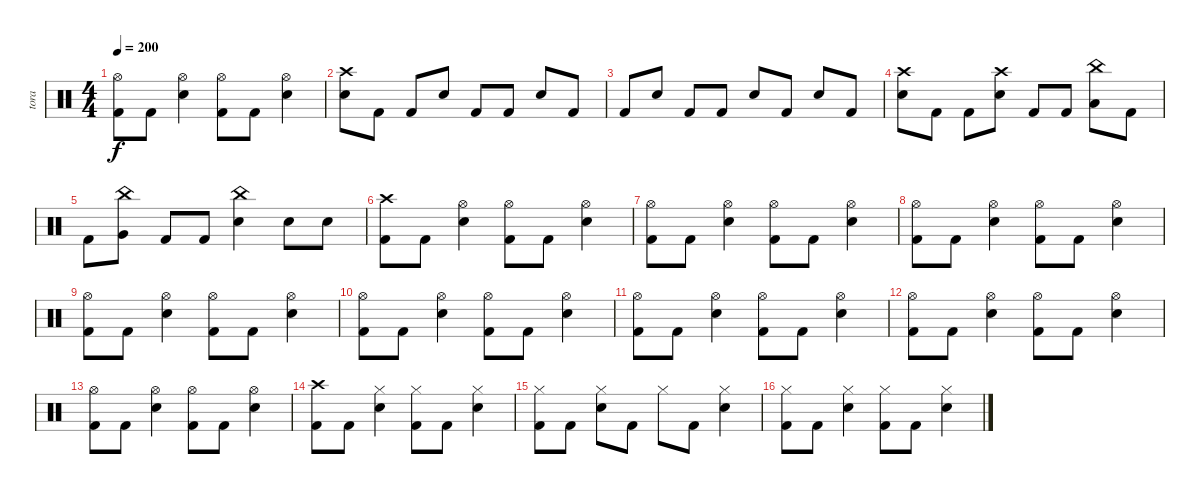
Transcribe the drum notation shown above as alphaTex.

\track ("tora" "tora") {instrument percussion}
\staff {score}
\articulation defaults
\ts (4 4)
\tempo 200
\clef neutral
\ks c
("Hi-Hat (open)" "Kick (hit) 2").8{dy f} "Kick (hit) 2".8 ("Hi-Hat (open)" "Snare (hit) 2").4 ("Hi-Hat (open)" "Kick (hit) 2").8 "Kick (hit) 2".8 ("Hi-Hat (open)" "Snare (hit) 2").4 |
("Crash high (hit)" "Snare (hit) 2").8 "Kick (hit) 2".8 "Kick (hit) 2".8 "Snare (hit) 2".8 "Kick (hit) 2".8 "Kick (hit) 2".8 "Snare (hit) 2".8 "Kick (hit) 2".8 |
"Kick (hit) 2".8 "Snare (hit) 2".8 "Kick (hit) 2".8 "Kick (hit) 2".8 "Snare (hit) 2".8 "Kick (hit) 2".8 "Snare (hit) 2".8 "Kick (hit) 2".8 |
("Crash high (hit)" "Snare (hit) 2").8 "Kick (hit) 2".8 "Kick (hit) 2".8 ("Crash high (hit)" "Snare (hit) 2").8 "Kick (hit) 2".8 "Kick (hit) 2".8 ("China (hit)" "Low Tom (hit)").8 "Kick (hit) 2".8 |
"Kick (hit) 2".8 ("China (hit)" "Very Low Tom (hit)").8 "Kick (hit) 2".8 "Kick (hit) 2".8 ("China (hit)" "Snare (hit) 2").4 "Snare (hit) 2".8 "Snare (hit) 2".8 |
("Crash high (hit)" "Kick (hit) 2").8 "Kick (hit) 2".8 ("Hi-Hat (open)" "Snare (hit) 2").4 ("Hi-Hat (open)" "Kick (hit) 2").8 "Kick (hit) 2".8 ("Hi-Hat (open)" "Snare (hit) 2").4 |
("Hi-Hat (open)" "Kick (hit) 2").8 "Kick (hit) 2".8 ("Hi-Hat (open)" "Snare (hit) 2").4 ("Hi-Hat (open)" "Kick (hit) 2").8 "Kick (hit) 2".8 ("Hi-Hat (open)" "Snare (hit) 2").4 |
("Hi-Hat (open)" "Kick (hit) 2").8 "Kick (hit) 2".8 ("Hi-Hat (open)" "Snare (hit) 2").4 ("Hi-Hat (open)" "Kick (hit) 2").8 "Kick (hit) 2".8 ("Hi-Hat (open)" "Snare (hit) 2").4 |
("Hi-Hat (open)" "Kick (hit) 2").8 "Kick (hit) 2".8 ("Hi-Hat (open)" "Snare (hit) 2").4 ("Hi-Hat (open)" "Kick (hit) 2").8 "Kick (hit) 2".8 ("Hi-Hat (open)" "Snare (hit) 2").4 |
("Hi-Hat (open)" "Kick (hit) 2").8 "Kick (hit) 2".8 ("Hi-Hat (open)" "Snare (hit) 2").4 ("Hi-Hat (open)" "Kick (hit) 2").8 "Kick (hit) 2".8 ("Hi-Hat (open)" "Snare (hit) 2").4 |
("Hi-Hat (open)" "Kick (hit) 2").8 "Kick (hit) 2".8 ("Hi-Hat (open)" "Snare (hit) 2").4 ("Hi-Hat (open)" "Kick (hit) 2").8 "Kick (hit) 2".8 ("Hi-Hat (open)" "Snare (hit) 2").4 |
("Hi-Hat (open)" "Kick (hit) 2").8 "Kick (hit) 2".8 ("Hi-Hat (open)" "Snare (hit) 2").4 ("Hi-Hat (open)" "Kick (hit) 2").8 "Kick (hit) 2".8 ("Hi-Hat (open)" "Snare (hit) 2").4 |
("Hi-Hat (open)" "Kick (hit) 2").8 "Kick (hit) 2".8 ("Hi-Hat (open)" "Snare (hit) 2").4 ("Hi-Hat (open)" "Kick (hit) 2").8 "Kick (hit) 2".8 ("Hi-Hat (open)" "Snare (hit) 2").4 |
("Crash high (hit)" "Kick (hit) 2").8 "Kick (hit) 2".8 ("Hi-Hat (closed)" "Snare (hit) 2").4 ("Hi-Hat (closed)" "Kick (hit) 2").8 "Kick (hit) 2".8 ("Hi-Hat (closed)" "Snare (hit) 2").4 |
("Hi-Hat (closed)" "Kick (hit) 2").8 "Kick (hit) 2".8 ("Hi-Hat (closed)" "Snare (hit) 2").8 "Kick (hit) 2".8 "Hi-Hat (closed)".8 "Kick (hit) 2".8 ("Hi-Hat (closed)" "Snare (hit) 2").4 |
("Hi-Hat (closed)" "Kick (hit) 2").8 "Kick (hit) 2".8 ("Hi-Hat (closed)" "Snare (hit) 2").4 ("Hi-Hat (closed)" "Kick (hit) 2").8 "Kick (hit) 2".8 ("Hi-Hat (closed)" "Snare (hit) 2").4
